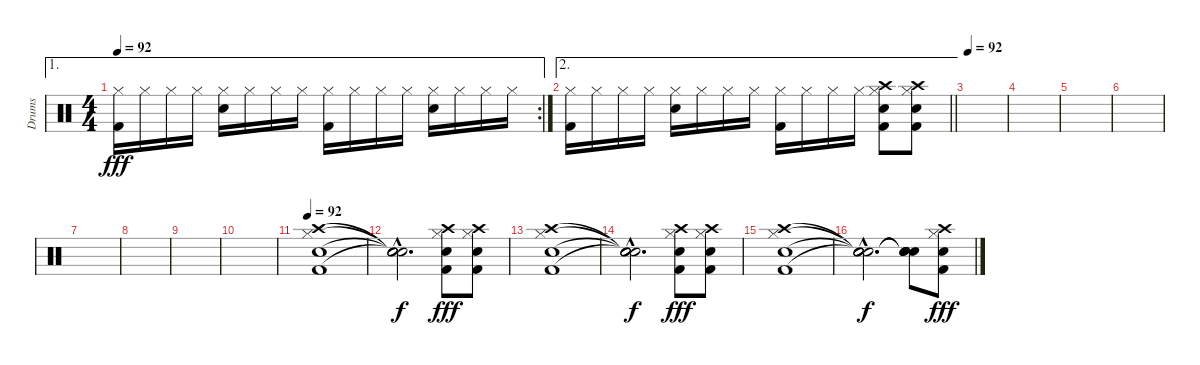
\track ("Drums" "Drums") {instrument percussion}
\staff {score}
\articulation defaults
\ae 1
\rc 2
\ts (4 4)
\tempo 92
\clef neutral
\ks c
("Hi-Hat (closed)" "Kick (hit) 2").16{dy fff} "Hi-Hat (closed)".16 "Hi-Hat (closed)".16 "Hi-Hat (closed)".16 ("Hi-Hat (closed)" "Snare (hit) 2").16 "Hi-Hat (closed)".16 "Hi-Hat (closed)".16 "Hi-Hat (closed)".16 ("Hi-Hat (closed)" "Kick (hit) 2").16 "Hi-Hat (closed)".16 "Hi-Hat (closed)".16 "Hi-Hat (closed)".16 ("Hi-Hat (closed)" "Snare (hit) 2").16 "Hi-Hat (closed)".16 "Hi-Hat (closed)".16 "Hi-Hat (closed)".16 |
\ae 2
\barLineRight lightlight
("Hi-Hat (closed)" "Kick (hit) 2").16 "Hi-Hat (closed)".16 "Hi-Hat (closed)".16 "Hi-Hat (closed)".16 ("Hi-Hat (closed)" "Snare (hit) 2").16 "Hi-Hat (closed)".16 "Hi-Hat (closed)".16 "Hi-Hat (closed)".16 ("Hi-Hat (closed)" "Kick (hit) 2").16 "Hi-Hat (closed)".16 "Hi-Hat (closed)".16 "Hi-Hat (closed)".16 ("Hi-Hat (closed)" "Kick (hit) 2" "Snare (hit) 2" "Crash high (hit)").8 ("Hi-Hat (closed)" "Kick (hit) 2" "Snare (hit) 2" "Crash high (hit)").8 |
\tempo 92
|
|
|
|
|
|
|
|
\tempo 92
("Hi-Hat (closed)" "Kick (hit) 2" "Snare (hit) 2" "Crash high (hit)").1 |
("Snare (hit)"{hac t} "Snare (hit)"{hac t} "Snare (hit)"{hac t} "Snare (hit)"{hac t}).2{d dy f} ("Hi-Hat (closed)" "Kick (hit) 2" "Snare (hit) 2" "Crash high (hit)").8{dy fff} ("Hi-Hat (closed)" "Kick (hit) 2" "Snare (hit) 2" "Crash high (hit)").8 |
("Hi-Hat (closed)" "Kick (hit) 2" "Snare (hit) 2" "Crash high (hit)").1 |
("Snare (hit)"{hac t} "Snare (hit)"{hac t} "Snare (hit)"{hac t} "Snare (hit)"{hac t}).2{d dy f} ("Hi-Hat (closed)" "Kick (hit) 2" "Snare (hit) 2" "Crash high (hit)").8{dy fff} ("Hi-Hat (closed)" "Kick (hit) 2" "Snare (hit) 2" "Crash high (hit)").8 |
("Hi-Hat (closed)" "Kick (hit) 2" "Snare (hit) 2" "Crash high (hit)").1 |
("Snare (hit)"{hac t} "Snare (hit)"{hac t} "Snare (hit)"{hac t} "Snare (hit)"{hac t}).2{d dy f} ("Snare (hit)"{t} "Snare (hit)"{t} "Snare (hit)"{t} "Snare (hit)"{t}).8 ("Hi-Hat (closed)" "Kick (hit) 2" "Snare (hit) 2" "Crash high (hit)").8{dy fff}
